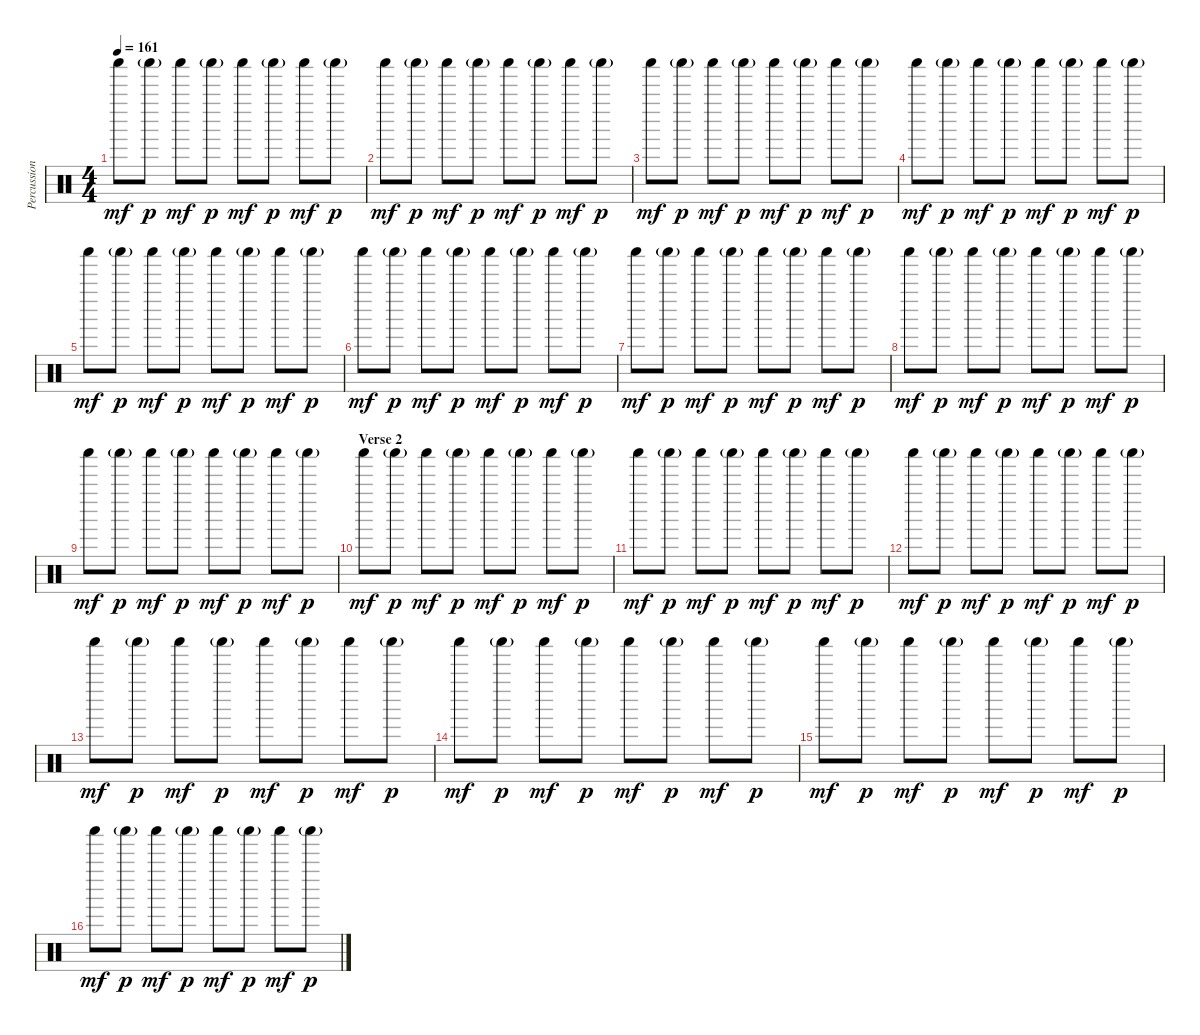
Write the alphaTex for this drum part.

\track ("Percussion" "Percussion") {instrument percussion}
\staff {score}
\articulation defaults
\ts (4 4)
\tempo 161
\clef neutral
\ks c "Shaker (hit)".8{dy mf} "Shaker (hit)"{g}.8{dy p} "Shaker (hit)".8{dy mf} "Shaker (hit)"{g}.8{dy p} "Shaker (hit)".8{dy mf} "Shaker (hit)"{g}.8{dy p} "Shaker (hit)".8{dy mf} "Shaker (hit)"{g}.8{dy p}
|
"Shaker (hit)".8{dy mf} "Shaker (hit)"{g}.8{dy p} "Shaker (hit)".8{dy mf} "Shaker (hit)"{g}.8{dy p} "Shaker (hit)".8{dy mf} "Shaker (hit)"{g}.8{dy p} "Shaker (hit)".8{dy mf} "Shaker (hit)"{g}.8{dy p} |
"Shaker (hit)".8{dy mf} "Shaker (hit)"{g}.8{dy p} "Shaker (hit)".8{dy mf} "Shaker (hit)"{g}.8{dy p} "Shaker (hit)".8{dy mf} "Shaker (hit)"{g}.8{dy p} "Shaker (hit)".8{dy mf} "Shaker (hit)"{g}.8{dy p} |
"Shaker (hit)".8{dy mf} "Shaker (hit)"{g}.8{dy p} "Shaker (hit)".8{dy mf} "Shaker (hit)"{g}.8{dy p} "Shaker (hit)".8{dy mf} "Shaker (hit)"{g}.8{dy p} "Shaker (hit)".8{dy mf} "Shaker (hit)"{g}.8{dy p} |
"Shaker (hit)".8{dy mf} "Shaker (hit)"{g}.8{dy p} "Shaker (hit)".8{dy mf} "Shaker (hit)"{g}.8{dy p} "Shaker (hit)".8{dy mf} "Shaker (hit)"{g}.8{dy p} "Shaker (hit)".8{dy mf} "Shaker (hit)"{g}.8{dy p} |
"Shaker (hit)".8{dy mf} "Shaker (hit)"{g}.8{dy p} "Shaker (hit)".8{dy mf} "Shaker (hit)"{g}.8{dy p} "Shaker (hit)".8{dy mf} "Shaker (hit)"{g}.8{dy p} "Shaker (hit)".8{dy mf} "Shaker (hit)"{g}.8{dy p} |
"Shaker (hit)".8{dy mf} "Shaker (hit)"{g}.8{dy p} "Shaker (hit)".8{dy mf} "Shaker (hit)"{g}.8{dy p} "Shaker (hit)".8{dy mf} "Shaker (hit)"{g}.8{dy p} "Shaker (hit)".8{dy mf} "Shaker (hit)"{g}.8{dy p} |
"Shaker (hit)".8{dy mf} "Shaker (hit)"{g}.8{dy p} "Shaker (hit)".8{dy mf} "Shaker (hit)"{g}.8{dy p} "Shaker (hit)".8{dy mf} "Shaker (hit)"{g}.8{dy p} "Shaker (hit)".8{dy mf} "Shaker (hit)"{g}.8{dy p} |
"Shaker (hit)".8{dy mf} "Shaker (hit)"{g}.8{dy p} "Shaker (hit)".8{dy mf} "Shaker (hit)"{g}.8{dy p} "Shaker (hit)".8{dy mf} "Shaker (hit)"{g}.8{dy p} "Shaker (hit)".8{dy mf} "Shaker (hit)"{g}.8{dy p} |
\section ("" "Verse 2")
"Shaker (hit)".8{dy mf} "Shaker (hit)"{g}.8{dy p} "Shaker (hit)".8{dy mf} "Shaker (hit)"{g}.8{dy p} "Shaker (hit)".8{dy mf} "Shaker (hit)"{g}.8{dy p} "Shaker (hit)".8{dy mf} "Shaker (hit)"{g}.8{dy p} |
"Shaker (hit)".8{dy mf} "Shaker (hit)"{g}.8{dy p} "Shaker (hit)".8{dy mf} "Shaker (hit)"{g}.8{dy p} "Shaker (hit)".8{dy mf} "Shaker (hit)"{g}.8{dy p} "Shaker (hit)".8{dy mf} "Shaker (hit)"{g}.8{dy p} |
"Shaker (hit)".8{dy mf} "Shaker (hit)"{g}.8{dy p} "Shaker (hit)".8{dy mf} "Shaker (hit)"{g}.8{dy p} "Shaker (hit)".8{dy mf} "Shaker (hit)"{g}.8{dy p} "Shaker (hit)".8{dy mf} "Shaker (hit)"{g}.8{dy p} |
"Shaker (hit)".8{dy mf} "Shaker (hit)"{g}.8{dy p} "Shaker (hit)".8{dy mf} "Shaker (hit)"{g}.8{dy p} "Shaker (hit)".8{dy mf} "Shaker (hit)"{g}.8{dy p} "Shaker (hit)".8{dy mf} "Shaker (hit)"{g}.8{dy p} |
"Shaker (hit)".8{dy mf} "Shaker (hit)"{g}.8{dy p} "Shaker (hit)".8{dy mf} "Shaker (hit)"{g}.8{dy p} "Shaker (hit)".8{dy mf} "Shaker (hit)"{g}.8{dy p} "Shaker (hit)".8{dy mf} "Shaker (hit)"{g}.8{dy p} |
"Shaker (hit)".8{dy mf} "Shaker (hit)"{g}.8{dy p} "Shaker (hit)".8{dy mf} "Shaker (hit)"{g}.8{dy p} "Shaker (hit)".8{dy mf} "Shaker (hit)"{g}.8{dy p} "Shaker (hit)".8{dy mf} "Shaker (hit)"{g}.8{dy p} |
"Shaker (hit)".8{dy mf} "Shaker (hit)"{g}.8{dy p} "Shaker (hit)".8{dy mf} "Shaker (hit)"{g}.8{dy p} "Shaker (hit)".8{dy mf} "Shaker (hit)"{g}.8{dy p} "Shaker (hit)".8{dy mf} "Shaker (hit)"{g}.8{dy p}
